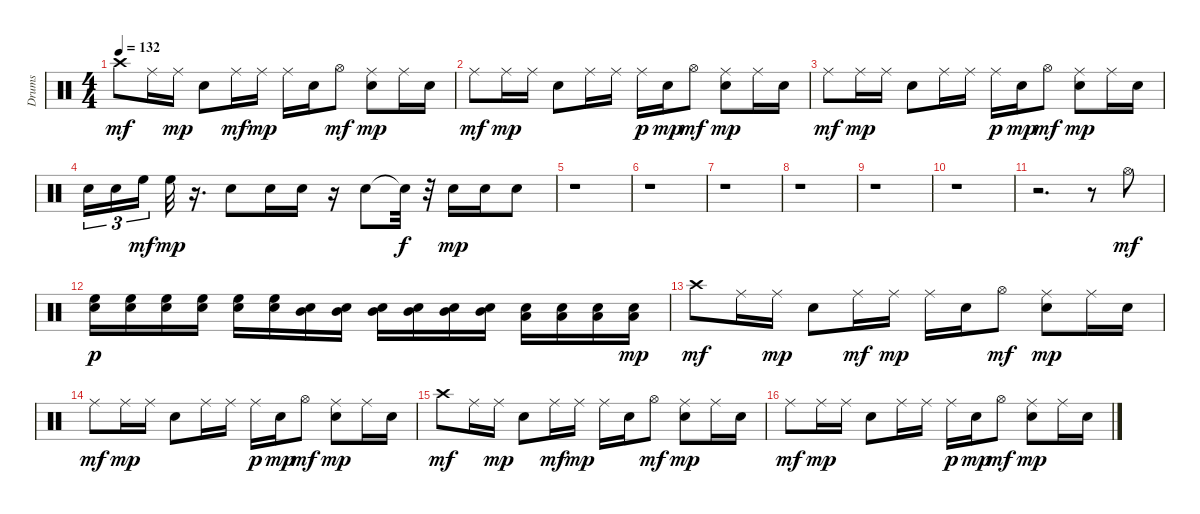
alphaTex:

\track ("Drums" "Drums") {instrument percussion}
\staff {score}
\articulation defaults
\ts (4 4)
\tempo 132
\clef neutral
\ks c "Crash high (hit)".8{dy mf} "Ride (middle)".16 "Ride (middle)".16{dy mp} "Electric Snare (hit)".8 "Ride (middle)".16{dy mf} "Ride (middle)".16{dy mp} "Ride (middle)".16 "Electric Snare (hit)".16 "Hi-Hat (open)".8{dy mf}
("Electric Snare (hit)" "Ride (middle)").8{dy mp} "Ride (middle)".16 "Electric Snare (hit)".16 |
"Ride (middle)".8{dy mf} "Ride (middle)".16{dy mp} "Ride (middle)".16 "Electric Snare (hit)".8 "Ride (middle)".16 "Ride (middle)".16 "Ride (middle)".16{dy p} "Electric Snare (hit)".16{dy mp} "Hi-Hat (open)".8{dy mf} ("Electric Snare (hit)" "Ride (middle)").8{dy mp} "Ride (middle)".16 "Electric Snare (hit)".16 |
"Ride (middle)".8{dy mf} "Ride (middle)".16{dy mp} "Ride (middle)".16 "Electric Snare (hit)".8 "Ride (middle)".16 "Ride (middle)".16 "Ride (middle)".16{dy p} "Electric Snare (hit)".16{dy mp} "Hi-Hat (open)".8{dy mf} ("Electric Snare (hit)" "Ride (middle)").8{dy mp} "Ride (middle)".16 "Electric Snare (hit)".16 |
"Electric Snare (hit)".16{tu (3 2)} "Electric Snare (hit)".16{tu (3 2)} "High Floor Tom (hit)".16{tu (3 2) dy mf} "High Floor Tom (hit)".32{dy mp} r.16{d} "Electric Snare (hit)".8 "Electric Snare (hit)".16 "Electric Snare (hit)".16 r.16 "Electric Snare (hit)".8 "Snare (hit)"{t}.32{dy f} r.32 "Electric Snare (hit)".16{dy mp} "Electric Snare (hit)".16 "Electric Snare (hit)".8 |
r.1 |
r.1 |
r.1 |
r.1 |
r.1 |
r.1 |
r.2{d} r.8 "Hi-Hat (open)".8{dy mf} |
("High Floor Tom (hit)" "Electric Snare (hit)").16{dy p} ("High Floor Tom (hit)" "Electric Snare (hit)").16 ("High Floor Tom (hit)" "Electric Snare (hit)").16 ("High Floor Tom (hit)" "Electric Snare (hit)").16 ("High Floor Tom (hit)" "Electric Snare (hit)").16 ("High Floor Tom (hit)" "Electric Snare (hit)").16 ("Mid Tom (hit)" "Electric Snare (hit)").16 ("Mid Tom (hit)" "Electric Snare (hit)").16 ("Mid Tom (hit)" "Electric Snare (hit)").16 ("Mid Tom (hit)" "Electric Snare (hit)").16 ("Mid Tom (hit)" "Electric Snare (hit)").16 ("Mid Tom (hit)" "Electric Snare (hit)").16 ("Low Tom (hit)" "Electric Snare (hit)").16 ("Low Tom (hit)" "Electric Snare (hit)").16 ("Low Tom (hit)" "Electric Snare (hit)").16 ("Low Tom (hit)" "Electric Snare (hit)").16{dy mp} |
"Crash high (hit)".8{dy mf} "Ride (middle)".16 "Ride (middle)".16{dy mp} "Electric Snare (hit)".8 "Ride (middle)".16{dy mf} "Ride (middle)".16{dy mp} "Ride (middle)".16 "Electric Snare (hit)".16 "Hi-Hat (open)".8{dy mf} ("Electric Snare (hit)" "Ride (middle)").8{dy mp} "Ride (middle)".16 "Electric Snare (hit)".16 |
"Ride (middle)".8{dy mf} "Ride (middle)".16{dy mp} "Ride (middle)".16 "Electric Snare (hit)".8 "Ride (middle)".16 "Ride (middle)".16 "Ride (middle)".16{dy p} "Electric Snare (hit)".16{dy mp} "Hi-Hat (open)".8{dy mf} ("Electric Snare (hit)" "Ride (middle)").8{dy mp} "Ride (middle)".16 "Electric Snare (hit)".16 |
"Crash high (hit)".8{dy mf} "Ride (middle)".16 "Ride (middle)".16{dy mp} "Electric Snare (hit)".8 "Ride (middle)".16{dy mf} "Ride (middle)".16{dy mp} "Ride (middle)".16 "Electric Snare (hit)".16 "Hi-Hat (open)".8{dy mf} ("Electric Snare (hit)" "Ride (middle)").8{dy mp} "Ride (middle)".16 "Electric Snare (hit)".16 |
"Ride (middle)".8{dy mf} "Ride (middle)".16{dy mp} "Ride (middle)".16 "Electric Snare (hit)".8 "Ride (middle)".16 "Ride (middle)".16 "Ride (middle)".16{dy p} "Electric Snare (hit)".16{dy mp} "Hi-Hat (open)".8{dy mf} ("Electric Snare (hit)" "Ride (middle)").8{dy mp} "Ride (middle)".16 "Electric Snare (hit)".16
